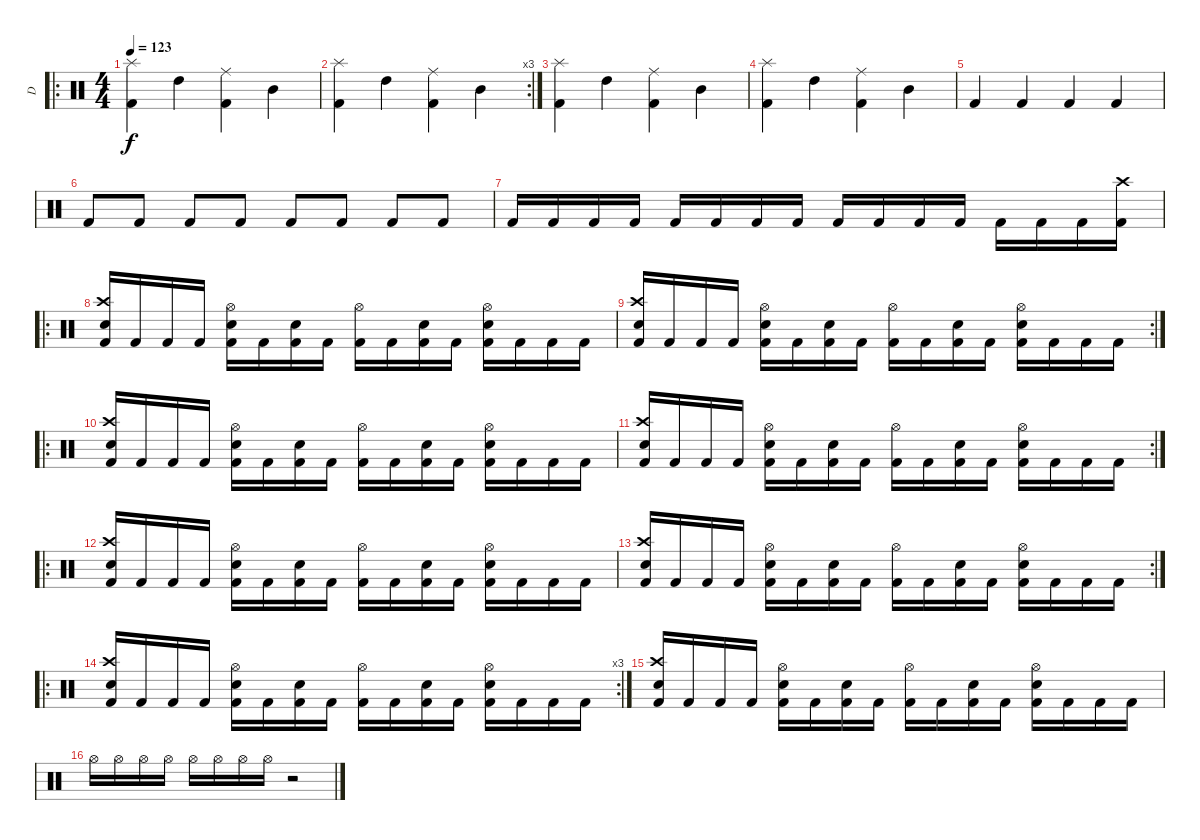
\track ("D" "D") {instrument percussion}
\staff {score}
\articulation defaults
\ro
\ts (4 4)
\tempo 123
\clef neutral
\ks c
("Splash (hit)" "Kick (hit) 2").4{dy f} "High Tom (hit)".4 ("Ride (middle)" "Kick (hit) 2").4 "Mid Tom (hit)".4 |
\rc 3
("Splash (hit)" "Kick (hit) 2").4 "High Tom (hit)".4 ("Ride (middle)" "Kick (hit) 2").4 "Mid Tom (hit)".4 |
("Splash (hit)" "Kick (hit) 2").4 "High Tom (hit)".4 ("Ride (middle)" "Kick (hit) 2").4 "Mid Tom (hit)".4 |
("Splash (hit)" "Kick (hit) 2").4 "High Tom (hit)".4 ("Ride (middle)" "Kick (hit) 2").4 "Mid Tom (hit)".4 |
"Kick (hit) 2".4 "Kick (hit) 2".4 "Kick (hit) 2".4 "Kick (hit) 2".4 |
"Kick (hit) 2".8 "Kick (hit) 2".8 "Kick (hit) 2".8 "Kick (hit) 2".8 "Kick (hit) 2".8 "Kick (hit) 2".8 "Kick (hit) 2".8 "Kick (hit) 2".8 |
"Kick (hit) 2".16 "Kick (hit) 2".16 "Kick (hit) 2".16 "Kick (hit) 2".16 "Kick (hit) 2".16 "Kick (hit) 2".16 "Kick (hit) 2".16 "Kick (hit) 2".16 "Kick (hit) 2".16 "Kick (hit) 2".16 "Kick (hit) 2".16 "Kick (hit) 2".16 "Kick (hit) 2".16 "Kick (hit) 2".16 "Kick (hit) 2".16 ("Crash high (hit)" "Kick (hit) 2").16 |
\ro
("Crash high (hit)" "Electric Snare (hit)" "Kick (hit) 2").16 "Kick (hit) 2".16 "Kick (hit) 2".16 "Kick (hit) 2".16 ("Hi-Hat (open)" "Electric Snare (hit)" "Kick (hit) 2").16 "Kick (hit) 2".16 ("Electric Snare (hit)" "Kick (hit) 2").16 "Kick (hit) 2".16 ("Hi-Hat (open)" "Kick (hit) 2").16 "Kick (hit) 2".16 ("Electric Snare (hit)" "Kick (hit) 2").16 "Kick (hit) 2".16 ("Hi-Hat (open)" "Electric Snare (hit)" "Kick (hit) 2").16 "Kick (hit) 2".16 "Kick (hit) 2".16 "Kick (hit) 2".16 |
\rc 2
("Crash high (hit)" "Electric Snare (hit)" "Kick (hit) 2").16 "Kick (hit) 2".16 "Kick (hit) 2".16 "Kick (hit) 2".16 ("Hi-Hat (open)" "Electric Snare (hit)" "Kick (hit) 2").16 "Kick (hit) 2".16 ("Electric Snare (hit)" "Kick (hit) 2").16 "Kick (hit) 2".16 ("Hi-Hat (open)" "Kick (hit) 2").16 "Kick (hit) 2".16 ("Electric Snare (hit)" "Kick (hit) 2").16 "Kick (hit) 2".16 ("Hi-Hat (open)" "Electric Snare (hit)" "Kick (hit) 2").16 "Kick (hit) 2".16 "Kick (hit) 2".16 "Kick (hit) 2".16 |
\ro
("Crash high (hit)" "Electric Snare (hit)" "Kick (hit) 2").16 "Kick (hit) 2".16 "Kick (hit) 2".16 "Kick (hit) 2".16 ("Hi-Hat (open)" "Electric Snare (hit)" "Kick (hit) 2").16 "Kick (hit) 2".16 ("Electric Snare (hit)" "Kick (hit) 2").16 "Kick (hit) 2".16 ("Hi-Hat (open)" "Kick (hit) 2").16 "Kick (hit) 2".16 ("Electric Snare (hit)" "Kick (hit) 2").16 "Kick (hit) 2".16 ("Hi-Hat (open)" "Electric Snare (hit)" "Kick (hit) 2").16 "Kick (hit) 2".16 "Kick (hit) 2".16 "Kick (hit) 2".16 |
\rc 2
("Crash high (hit)" "Electric Snare (hit)" "Kick (hit) 2").16 "Kick (hit) 2".16 "Kick (hit) 2".16 "Kick (hit) 2".16 ("Hi-Hat (open)" "Electric Snare (hit)" "Kick (hit) 2").16 "Kick (hit) 2".16 ("Electric Snare (hit)" "Kick (hit) 2").16 "Kick (hit) 2".16 ("Hi-Hat (open)" "Kick (hit) 2").16 "Kick (hit) 2".16 ("Electric Snare (hit)" "Kick (hit) 2").16 "Kick (hit) 2".16 ("Hi-Hat (open)" "Electric Snare (hit)" "Kick (hit) 2").16 "Kick (hit) 2".16 "Kick (hit) 2".16 "Kick (hit) 2".16 |
\ro
("Crash high (hit)" "Electric Snare (hit)" "Kick (hit) 2").16 "Kick (hit) 2".16 "Kick (hit) 2".16 "Kick (hit) 2".16 ("Hi-Hat (open)" "Electric Snare (hit)" "Kick (hit) 2").16 "Kick (hit) 2".16 ("Electric Snare (hit)" "Kick (hit) 2").16 "Kick (hit) 2".16 ("Hi-Hat (open)" "Kick (hit) 2").16 "Kick (hit) 2".16 ("Electric Snare (hit)" "Kick (hit) 2").16 "Kick (hit) 2".16 ("Hi-Hat (open)" "Electric Snare (hit)" "Kick (hit) 2").16 "Kick (hit) 2".16 "Kick (hit) 2".16 "Kick (hit) 2".16 |
\rc 2
("Crash high (hit)" "Electric Snare (hit)" "Kick (hit) 2").16 "Kick (hit) 2".16 "Kick (hit) 2".16 "Kick (hit) 2".16 ("Hi-Hat (open)" "Electric Snare (hit)" "Kick (hit) 2").16 "Kick (hit) 2".16 ("Electric Snare (hit)" "Kick (hit) 2").16 "Kick (hit) 2".16 ("Hi-Hat (open)" "Kick (hit) 2").16 "Kick (hit) 2".16 ("Electric Snare (hit)" "Kick (hit) 2").16 "Kick (hit) 2".16 ("Hi-Hat (open)" "Electric Snare (hit)" "Kick (hit) 2").16 "Kick (hit) 2".16 "Kick (hit) 2".16 "Kick (hit) 2".16 |
\ro
\rc 3
("Crash high (hit)" "Electric Snare (hit)" "Kick (hit) 2").16 "Kick (hit) 2".16 "Kick (hit) 2".16 "Kick (hit) 2".16 ("Hi-Hat (open)" "Electric Snare (hit)" "Kick (hit) 2").16 "Kick (hit) 2".16 ("Electric Snare (hit)" "Kick (hit) 2").16 "Kick (hit) 2".16 ("Hi-Hat (open)" "Kick (hit) 2").16 "Kick (hit) 2".16 ("Electric Snare (hit)" "Kick (hit) 2").16 "Kick (hit) 2".16 ("Hi-Hat (open)" "Electric Snare (hit)" "Kick (hit) 2").16 "Kick (hit) 2".16 "Kick (hit) 2".16 "Kick (hit) 2".16 |
("Crash high (hit)" "Electric Snare (hit)" "Kick (hit) 2").16 "Kick (hit) 2".16 "Kick (hit) 2".16 "Kick (hit) 2".16 ("Hi-Hat (open)" "Electric Snare (hit)" "Kick (hit) 2").16 "Kick (hit) 2".16 ("Electric Snare (hit)" "Kick (hit) 2").16 "Kick (hit) 2".16 ("Hi-Hat (open)" "Kick (hit) 2").16 "Kick (hit) 2".16 ("Electric Snare (hit)" "Kick (hit) 2").16 "Kick (hit) 2".16 ("Hi-Hat (open)" "Electric Snare (hit)" "Kick (hit) 2").16 "Kick (hit) 2".16 "Kick (hit) 2".16 "Kick (hit) 2".16 |
"Hi-Hat (open)".16 "Hi-Hat (open)".16 "Hi-Hat (open)".16 "Hi-Hat (open)".16 "Hi-Hat (open)".16 "Hi-Hat (open)".16 "Hi-Hat (open)".16 "Hi-Hat (open)".16 r.2
